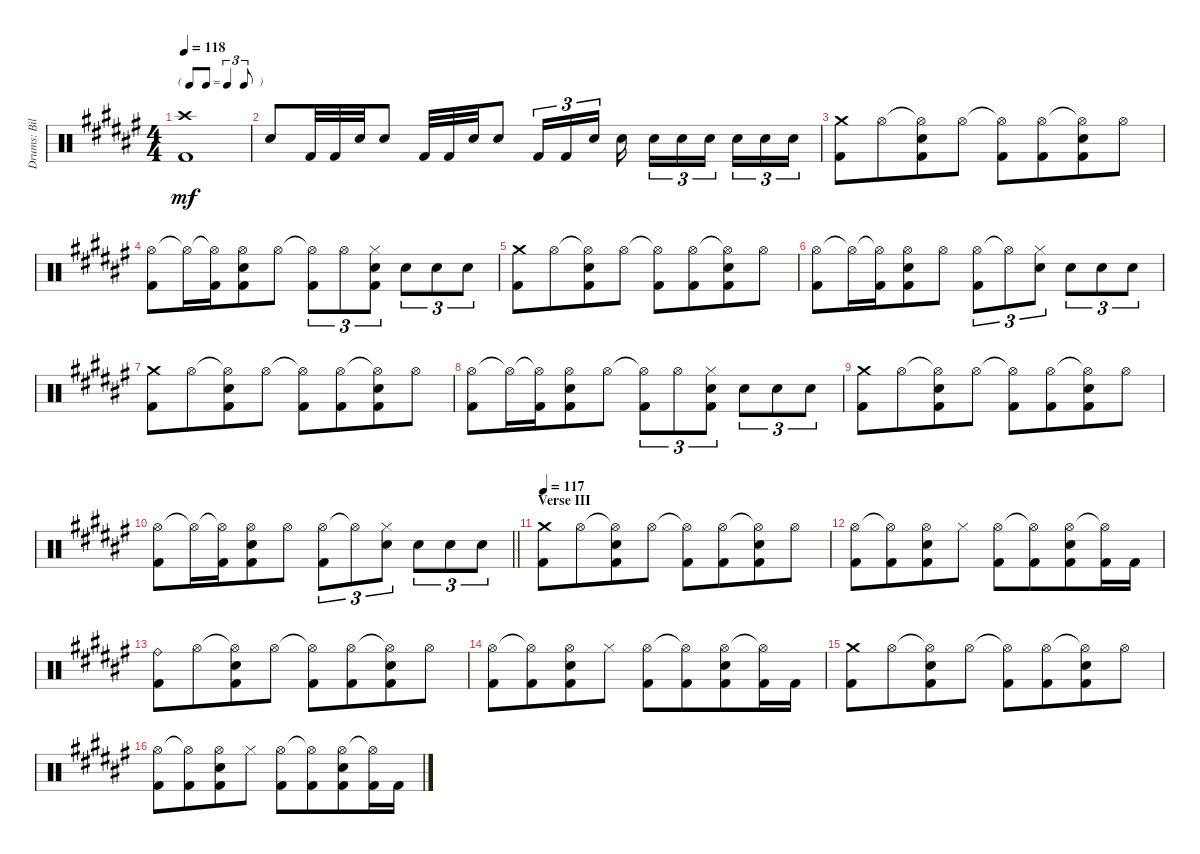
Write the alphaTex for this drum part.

\track ("Drums: Bill" "Drums: Bil") {instrument percussion}
\staff {score}
\articulation defaults
\ts (4 4)
\tf triplet8th
\tempo 118
\clef neutral
\ks f#
("Crash high (hit)" "Kick (hit) 2").1{dy mf} |
"Electric Snare (hit)".8 "Kick (hit) 2".32 "Kick (hit) 2".32 "Snare (hit) 2".32 "Electric Snare (hit)".8 "Kick (hit) 2".32 "Kick (hit) 2".32 "Snare (hit) 2".32 "Electric Snare (hit)".8 "Kick (hit) 2".16{tu (3 2)} "Kick (hit) 2".16{tu (3 2)} "Snare (hit) 2".16{tu (3 2) beam splitsecondary} "Electric Snare (hit)".16 "Electric Snare (hit)".16{tu (3 2)} "Electric Snare (hit)".16{tu (3 2)} "Electric Snare (hit)".16{tu (3 2) beam splitsecondary} "Electric Snare (hit)".16{tu (3 2)} "Electric Snare (hit)".16{tu (3 2)} "Electric Snare (hit)".16{tu (3 2)} |
("Crash medium (hit)" "Kick (hit) 2").8 "Hi-Hat (open)".8{beam merge} ("Hi-Hat (open)"{t} "Electric Snare (hit)" "Kick (hit) 2").8 "Hi-Hat (open)".8 ("Hi-Hat (open)"{t} "Kick (hit) 2").8 ("Hi-Hat (open)" "Kick (hit) 2").8{beam merge} ("Hi-Hat (open)"{t} "Electric Snare (hit)" "Kick (hit) 2").8 "Hi-Hat (open)".8 |
("Hi-Hat (open)" "Kick (hit) 2").8 "Hi-Hat (open)"{t}.16 ("Hi-Hat (open)"{t} "Kick (hit) 2").16{beam merge} ("Hi-Hat (open)" "Snare (hit) 2" "Kick (hit) 2").8 "Hi-Hat (open)".8 ("Hi-Hat (open)"{t} "Kick (hit) 2").8{tu (3 2)} "Hi-Hat (open)".8{tu (3 2)} ("Hi-Hat (closed)" "Electric Snare (hit)" "Kick (hit) 2").8{tu (3 2)} "Electric Snare (hit)".8{tu (3 2)} "Electric Snare (hit)".8{tu (3 2)} "Electric Snare (hit)".8{tu (3 2)} |
("Crash medium (hit)" "Kick (hit) 2").8 "Hi-Hat (open)".8{beam merge} ("Hi-Hat (open)"{t} "Electric Snare (hit)" "Kick (hit) 2").8 "Hi-Hat (open)".8 ("Hi-Hat (open)"{t} "Kick (hit) 2").8 ("Hi-Hat (open)" "Kick (hit) 2").8{beam merge} ("Hi-Hat (open)"{t} "Electric Snare (hit)" "Kick (hit) 2").8 "Hi-Hat (open)".8 |
("Hi-Hat (open)" "Kick (hit) 2").8 "Hi-Hat (open)"{t}.16 ("Hi-Hat (open)"{t} "Kick (hit) 2").16{beam merge} ("Hi-Hat (open)" "Snare (hit) 2" "Kick (hit) 2").8 "Hi-Hat (open)".8 ("Hi-Hat (open)" "Kick (hit) 2").8{tu (3 2)} "Hi-Hat (open)"{t}.8{tu (3 2)} ("Hi-Hat (closed)" "Electric Snare (hit)").8{tu (3 2)} "Electric Snare (hit)".8{tu (3 2)} "Electric Snare (hit)".8{tu (3 2)} "Electric Snare (hit)".8{tu (3 2)} |
("Crash medium (hit)" "Kick (hit) 2").8 "Hi-Hat (open)".8{beam merge} ("Hi-Hat (open)"{t} "Electric Snare (hit)" "Kick (hit) 2").8 "Hi-Hat (open)".8 ("Hi-Hat (open)"{t} "Kick (hit) 2").8 ("Hi-Hat (open)" "Kick (hit) 2").8{beam merge} ("Hi-Hat (open)"{t} "Electric Snare (hit)" "Kick (hit) 2").8 "Hi-Hat (open)".8 |
("Hi-Hat (open)" "Kick (hit) 2").8 "Hi-Hat (open)"{t}.16 ("Hi-Hat (open)"{t} "Kick (hit) 2").16{beam merge} ("Hi-Hat (open)" "Snare (hit) 2" "Kick (hit) 2").8 "Hi-Hat (open)".8 ("Hi-Hat (open)"{t} "Kick (hit) 2").8{tu (3 2)} "Hi-Hat (open)".8{tu (3 2)} ("Hi-Hat (closed)" "Electric Snare (hit)" "Kick (hit) 2").8{tu (3 2)} "Electric Snare (hit)".8{tu (3 2)} "Electric Snare (hit)".8{tu (3 2)} "Electric Snare (hit)".8{tu (3 2)} |
("Crash medium (hit)" "Kick (hit) 2").8 "Hi-Hat (open)".8{beam merge} ("Hi-Hat (open)"{t} "Electric Snare (hit)" "Kick (hit) 2").8 "Hi-Hat (open)".8 ("Hi-Hat (open)"{t} "Kick (hit) 2").8 ("Hi-Hat (open)" "Kick (hit) 2").8{beam merge} ("Hi-Hat (open)"{t} "Electric Snare (hit)" "Kick (hit) 2").8 "Hi-Hat (open)".8 |
\barLineRight lightlight
("Hi-Hat (open)" "Kick (hit) 2").8 "Hi-Hat (open)"{t}.16 ("Hi-Hat (open)"{t} "Kick (hit) 2").16{beam merge} ("Hi-Hat (open)" "Snare (hit) 2" "Kick (hit) 2").8 "Hi-Hat (open)".8 ("Hi-Hat (open)" "Kick (hit) 2").8{tu (3 2)} "Hi-Hat (open)"{t}.8{tu (3 2)} ("Hi-Hat (closed)" "Electric Snare (hit)").8{tu (3 2)} "Electric Snare (hit)".8{tu (3 2)} "Electric Snare (hit)".8{tu (3 2)} "Electric Snare (hit)".8{tu (3 2)} |
\section ("" "Verse III")
\tempo 117
("Crash medium (hit)" "Kick (hit) 2").8 "Hi-Hat (open)".8{beam merge} ("Hi-Hat (open)"{t} "Electric Snare (hit)" "Kick (hit) 2").8 "Hi-Hat (open)".8 ("Hi-Hat (open)"{t} "Kick (hit) 2").8 ("Hi-Hat (open)" "Kick (hit) 2").8{beam merge} ("Hi-Hat (open)"{t} "Electric Snare (hit)" "Kick (hit) 2").8 "Hi-Hat (open)".8 |
("Hi-Hat (open)" "Kick (hit) 2").8 ("Hi-Hat (open)"{t} "Kick (hit) 2").8{beam merge} ("Hi-Hat (open)" "Snare (hit) 2" "Kick (hit) 2").8 "Hi-Hat (closed)".8 ("Hi-Hat (open)" "Kick (hit) 2").8 ("Hi-Hat (open)"{t} "Kick (hit) 2").8{beam merge} ("Hi-Hat (open)" "Electric Snare (hit)" "Kick (hit) 2").8 ("Hi-Hat (open)"{t} "Kick (hit) 2").16 "Kick (hit) 2".16 |
("Ride (bell)" "Kick (hit) 2").8 "Hi-Hat (open)".8{beam merge} ("Hi-Hat (open)"{t} "Electric Snare (hit)" "Kick (hit) 2").8 "Hi-Hat (open)".8 ("Hi-Hat (open)"{t} "Kick (hit) 2").8 ("Hi-Hat (open)" "Kick (hit) 2").8{beam merge} ("Hi-Hat (open)"{t} "Electric Snare (hit)" "Kick (hit) 2").8 "Hi-Hat (open)".8 |
("Hi-Hat (open)" "Kick (hit) 2").8 ("Hi-Hat (open)"{t} "Kick (hit) 2").8{beam merge} ("Hi-Hat (open)" "Snare (hit) 2" "Kick (hit) 2").8 "Hi-Hat (closed)".8 ("Hi-Hat (open)" "Kick (hit) 2").8 ("Hi-Hat (open)"{t} "Kick (hit) 2").8{beam merge} ("Hi-Hat (open)" "Electric Snare (hit)" "Kick (hit) 2").8 ("Hi-Hat (open)"{t} "Kick (hit) 2").16 "Kick (hit) 2".16 |
("Crash medium (hit)" "Kick (hit) 2").8 "Hi-Hat (open)".8{beam merge} ("Hi-Hat (open)"{t} "Electric Snare (hit)" "Kick (hit) 2").8 "Hi-Hat (open)".8 ("Hi-Hat (open)"{t} "Kick (hit) 2").8 ("Hi-Hat (open)" "Kick (hit) 2").8{beam merge} ("Hi-Hat (open)"{t} "Electric Snare (hit)" "Kick (hit) 2").8 "Hi-Hat (open)".8 |
("Hi-Hat (open)" "Kick (hit) 2").8 ("Hi-Hat (open)"{t} "Kick (hit) 2").8{beam merge} ("Hi-Hat (open)" "Snare (hit) 2" "Kick (hit) 2").8 "Hi-Hat (closed)".8 ("Hi-Hat (open)" "Kick (hit) 2").8 ("Hi-Hat (open)"{t} "Kick (hit) 2").8{beam merge} ("Hi-Hat (open)" "Electric Snare (hit)" "Kick (hit) 2").8 ("Hi-Hat (open)"{t} "Kick (hit) 2").16 "Kick (hit) 2".16
